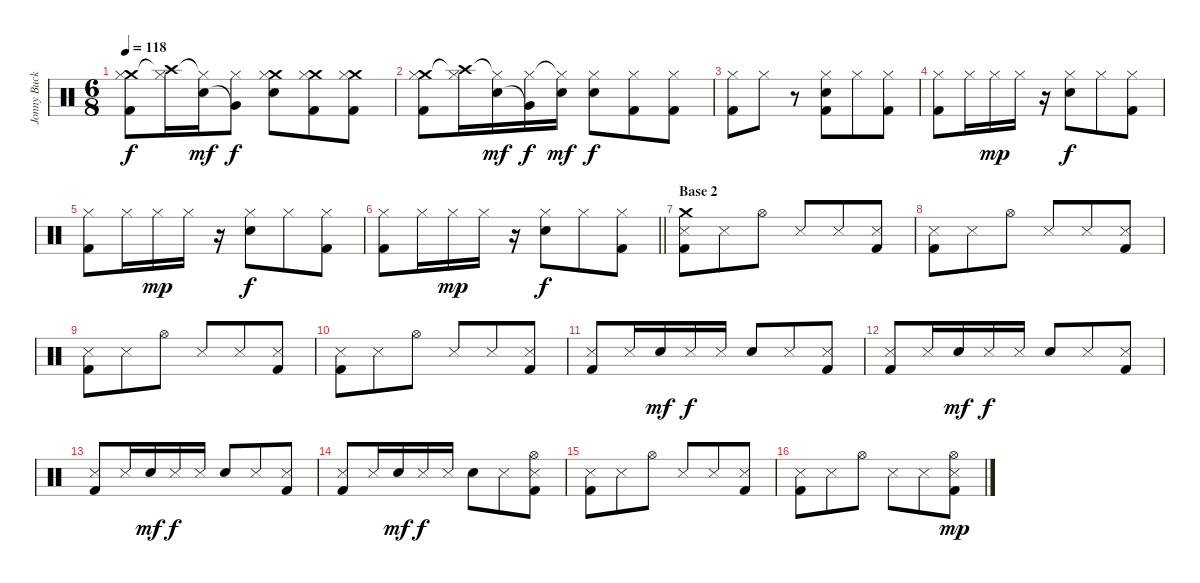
\track ("Jonny Buckland (batera)" "Jonny Buck") {instrument percussion}
\staff {score}
\articulation defaults
\ts (6 8)
\tempo 118
\clef neutral
\ks c
("Crash medium (hit)" "Hi-Hat (closed)" "Kick (hit) 2").8{dy f} ("Crash high (hit)"{t} "Hi-Hat (closed)").16 ("Hi-Hat (closed)"{t} "Snare (hit) 2").16{dy mf} ("Hi-Hat (closed)" "Very Low Tom (hit)"{t}).8{dy f} ("Crash medium (hit)" "Hi-Hat (closed)" "Electric Snare (hit)").8 ("Crash medium (hit)" "Hi-Hat (closed)" "Kick (hit) 2").8 ("Crash medium (hit)" "Hi-Hat (closed)" "Kick (hit) 2").8 |
("Crash medium (hit)" "Hi-Hat (closed)" "Kick (hit) 2").8 ("Crash high (hit)"{t} "Hi-Hat (closed)").16 ("Hi-Hat (closed)"{t} "Snare (hit) 2").16{dy mf} ("Hi-Hat (closed)" "Very Low Tom (hit)"{t}).16{dy f} ("Hi-Hat (closed)"{t} "Snare (hit) 2").16{dy mf} ("Hi-Hat (closed)" "Electric Snare (hit)").8{dy f} ("Hi-Hat (closed)" "Kick (hit) 2").8 ("Hi-Hat (closed)" "Kick (hit) 2").8 |
("Hi-Hat (closed)" "Kick (hit) 2").8 "Hi-Hat (closed)".8 r.8 ("Hi-Hat (closed)" "Electric Snare (hit)" "Kick (hit) 2").8 "Hi-Hat (closed)".8 ("Hi-Hat (closed)" "Kick (hit) 2").8 |
("Hi-Hat (closed)" "Kick (hit) 2").8 "Hi-Hat (closed)".16 "Hi-Hat (closed)".16{dy mp} "Hi-Hat (closed)".16 r.16 ("Hi-Hat (closed)" "Electric Snare (hit)").8{dy f} "Hi-Hat (closed)".8 ("Hi-Hat (closed)" "Kick (hit) 2").8 |
("Hi-Hat (closed)" "Kick (hit) 2").8 "Hi-Hat (closed)".16 "Hi-Hat (closed)".16{dy mp} "Hi-Hat (closed)".16 r.16 ("Hi-Hat (closed)" "Electric Snare (hit)").8{dy f} "Hi-Hat (closed)".8 ("Hi-Hat (closed)" "Kick (hit) 2").8 |
\barLineRight lightlight
("Hi-Hat (closed)" "Kick (hit) 2").8 "Hi-Hat (closed)".16 "Hi-Hat (closed)".16{dy mp} "Hi-Hat (closed)".16 r.16 ("Hi-Hat (closed)" "Electric Snare (hit)").8{dy f} "Hi-Hat (closed)".8 ("Hi-Hat (closed)" "Kick (hit) 2").8 |
\section ("" "Base 2")
("Crash medium (hit)" "Snare (side stick) 3" "Kick (hit) 2").8 "Snare (side stick) 3".8 "Hi-Hat (open)".8 "Snare (side stick) 3".8 "Snare (side stick) 3".8 ("Snare (side stick) 3" "Kick (hit) 2").8 |
("Snare (side stick) 3" "Kick (hit) 2").8 "Snare (side stick) 3".8 "Hi-Hat (open)".8 "Snare (side stick) 3".8 "Snare (side stick) 3".8 ("Snare (side stick) 3" "Kick (hit) 2").8 |
("Snare (side stick) 3" "Kick (hit) 2").8 "Snare (side stick) 3".8 "Hi-Hat (open)".8 "Snare (side stick) 3".8 "Snare (side stick) 3".8 ("Snare (side stick) 3" "Kick (hit) 2").8 |
("Snare (side stick) 3" "Kick (hit) 2").8 "Snare (side stick) 3".8 "Hi-Hat (open)".8 "Snare (side stick) 3".8 "Snare (side stick) 3".8 ("Snare (side stick) 3" "Kick (hit) 2").8 |
("Snare (side stick) 3" "Kick (hit) 2").8 "Snare (side stick) 3".16 "Snare (hit) 2".16{dy mf} "Snare (side stick) 3".16{dy f} "Snare (side stick) 3".16 "Electric Snare (hit)".8 "Snare (side stick) 3".8 ("Snare (side stick) 3" "Kick (hit) 2").8 |
("Snare (side stick) 3" "Kick (hit) 2").8 "Snare (side stick) 3".16 "Snare (hit) 2".16{dy mf} "Snare (side stick) 3".16{dy f} "Snare (side stick) 3".16 "Electric Snare (hit)".8 "Snare (side stick) 3".8 ("Snare (side stick) 3" "Kick (hit) 2").8 |
("Snare (side stick) 3" "Kick (hit) 2").8 "Snare (side stick) 3".16 "Snare (hit) 2".16{dy mf} "Snare (side stick) 3".16{dy f} "Snare (side stick) 3".16 "Electric Snare (hit)".8 "Snare (side stick) 3".8 ("Snare (side stick) 3" "Kick (hit) 2").8 |
("Snare (side stick) 3" "Kick (hit) 2").8 "Snare (side stick) 3".16 "Snare (hit) 2".16{dy mf} "Snare (side stick) 3".16{dy f} "Snare (side stick) 3".16 "Electric Snare (hit)".8 "Snare (side stick) 3".8 ("Snare (side stick) 3" "Hi-Hat (open)" "Kick (hit) 2").8 |
("Snare (side stick) 3" "Kick (hit) 2").8 "Snare (side stick) 3".8 "Hi-Hat (open)".8 "Snare (side stick) 3".8 "Snare (side stick) 3".8 ("Snare (side stick) 3" "Kick (hit) 2").8 |
("Snare (side stick) 3" "Kick (hit) 2").8 "Snare (side stick) 3".8 "Hi-Hat (open)".8 "Snare (side stick) 3".8 "Snare (side stick) 3".8 ("Snare (side stick) 3" "Hi-Hat (open)" "Kick (hit) 2").8{dy mp}
